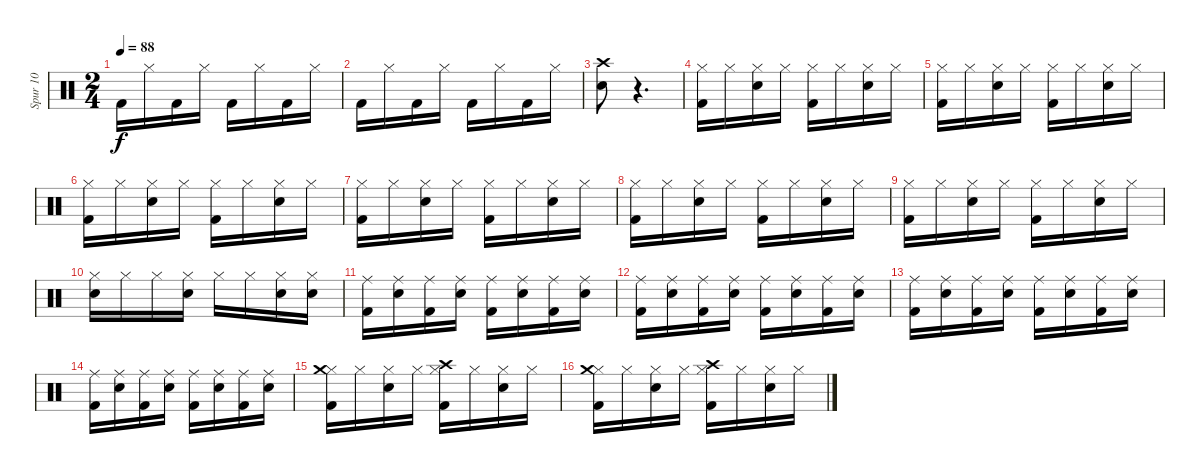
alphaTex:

\track ("Spur 10" "Spur 10") {instrument percussion}
\staff {score}
\articulation defaults
\ts (2 4)
\tempo 88
\clef neutral
\ks c "Kick (hit) 2".16{dy f} "Hi-Hat (closed)".16 "Kick (hit) 2".16 "Hi-Hat (closed)".16 "Kick (hit) 2".16 "Hi-Hat (closed)".16 "Kick (hit) 2".16 "Hi-Hat (closed)".16
|
"Kick (hit) 2".16 "Hi-Hat (closed)".16 "Kick (hit) 2".16 "Hi-Hat (closed)".16 "Kick (hit) 2".16 "Hi-Hat (closed)".16 "Kick (hit) 2".16 "Hi-Hat (closed)".16 |
("Crash high (hit)" "Electric Snare (hit)").8 r.4{d} |
("Hi-Hat (closed)" "Kick (hit) 2").16 "Hi-Hat (closed)".16 ("Hi-Hat (closed)" "Electric Snare (hit)").16 "Hi-Hat (closed)".16 ("Hi-Hat (closed)" "Kick (hit) 2").16 "Hi-Hat (closed)".16 ("Hi-Hat (closed)" "Snare (hit) 2").16 "Hi-Hat (closed)".16 |
("Hi-Hat (closed)" "Kick (hit) 2").16 "Hi-Hat (closed)".16 ("Hi-Hat (closed)" "Electric Snare (hit)").16 "Hi-Hat (closed)".16 ("Hi-Hat (closed)" "Kick (hit) 2").16 "Hi-Hat (closed)".16 ("Hi-Hat (closed)" "Snare (hit) 2").16 "Hi-Hat (closed)".16 |
("Hi-Hat (closed)" "Kick (hit) 2").16 "Hi-Hat (closed)".16 ("Hi-Hat (closed)" "Electric Snare (hit)").16 "Hi-Hat (closed)".16 ("Hi-Hat (closed)" "Kick (hit) 2").16 "Hi-Hat (closed)".16 ("Hi-Hat (closed)" "Electric Snare (hit)").16 "Hi-Hat (closed)".16 |
("Hi-Hat (closed)" "Kick (hit) 2").16 "Hi-Hat (closed)".16 ("Hi-Hat (closed)" "Electric Snare (hit)").16 "Hi-Hat (closed)".16 ("Hi-Hat (closed)" "Kick (hit) 2").16 "Hi-Hat (closed)".16 ("Hi-Hat (closed)" "Electric Snare (hit)").16 "Hi-Hat (closed)".16 |
("Hi-Hat (closed)" "Kick (hit) 2").16 "Hi-Hat (closed)".16 ("Hi-Hat (closed)" "Electric Snare (hit)").16 "Hi-Hat (closed)".16 ("Hi-Hat (closed)" "Kick (hit) 2").16 "Hi-Hat (closed)".16 ("Hi-Hat (closed)" "Electric Snare (hit)").16 "Hi-Hat (closed)".16 |
("Hi-Hat (closed)" "Kick (hit) 2").16 "Hi-Hat (closed)".16 ("Hi-Hat (closed)" "Electric Snare (hit)").16 "Hi-Hat (closed)".16 ("Hi-Hat (closed)" "Kick (hit) 2").16 "Hi-Hat (closed)".16 ("Hi-Hat (closed)" "Electric Snare (hit)").16 "Hi-Hat (closed)".16 |
("Electric Snare (hit)" "Hi-Hat (closed)").16 "Hi-Hat (closed)".16 "Hi-Hat (closed)".16 ("Snare (hit) 2" "Hi-Hat (closed)").16 "Hi-Hat (closed)".16 "Hi-Hat (closed)".16 ("Snare (hit) 2" "Hi-Hat (closed)").16 ("Electric Snare (hit)" "Hi-Hat (closed)").16 |
("Ride (middle)" "Kick (hit) 2").16 ("Ride (middle)" "Snare (hit) 2").16 ("Ride (middle)" "Kick (hit) 2").16 ("Ride (middle)" "Snare (hit) 2").16 ("Ride (middle)" "Kick (hit) 2").16 ("Ride (middle)" "Snare (hit) 2").16 ("Ride (middle)" "Kick (hit) 2").16 ("Ride (middle)" "Snare (hit) 2").16 |
("Ride (middle)" "Kick (hit) 2").16 ("Ride (middle)" "Snare (hit) 2").16 ("Ride (middle)" "Kick (hit) 2").16 ("Ride (middle)" "Snare (hit) 2").16 ("Ride (middle)" "Kick (hit) 2").16 ("Ride (middle)" "Snare (hit) 2").16 ("Ride (middle)" "Kick (hit) 2").16 ("Ride (middle)" "Snare (hit) 2").16 |
("Ride (middle)" "Kick (hit) 2").16 ("Ride (middle)" "Snare (hit) 2").16 ("Ride (middle)" "Kick (hit) 2").16 ("Ride (middle)" "Snare (hit) 2").16 ("Ride (middle)" "Kick (hit) 2").16 ("Ride (middle)" "Snare (hit) 2").16 ("Ride (middle)" "Kick (hit) 2").16 ("Ride (middle)" "Snare (hit) 2").16 |
("Ride (middle)" "Kick (hit) 2").16 ("Ride (middle)" "Snare (hit) 2").16 ("Ride (middle)" "Kick (hit) 2").16 ("Ride (middle)" "Snare (hit) 2").16 ("Ride (middle)" "Kick (hit) 2").16 ("Ride (middle)" "Snare (hit) 2").16 ("Ride (middle)" "Kick (hit) 2").16 ("Ride (middle)" "Snare (hit) 2").16 |
("Hi-Hat (closed)" "Crash medium (hit)" "Kick (hit) 2").16 "Hi-Hat (closed)".16 ("Hi-Hat (closed)" "Electric Snare (hit)").16 "Hi-Hat (closed)".16 ("Hi-Hat (closed)" "Crash high (hit)" "Kick (hit) 2").16 "Hi-Hat (closed)".16 ("Hi-Hat (closed)" "Electric Snare (hit)").16 "Hi-Hat (closed)".16 |
("Hi-Hat (closed)" "Crash medium (hit)" "Kick (hit) 2").16 "Hi-Hat (closed)".16 ("Hi-Hat (closed)" "Electric Snare (hit)").16 "Hi-Hat (closed)".16 ("Hi-Hat (closed)" "Crash high (hit)" "Kick (hit) 2").16 "Hi-Hat (closed)".16 ("Hi-Hat (closed)" "Electric Snare (hit)").16 "Hi-Hat (closed)".16
